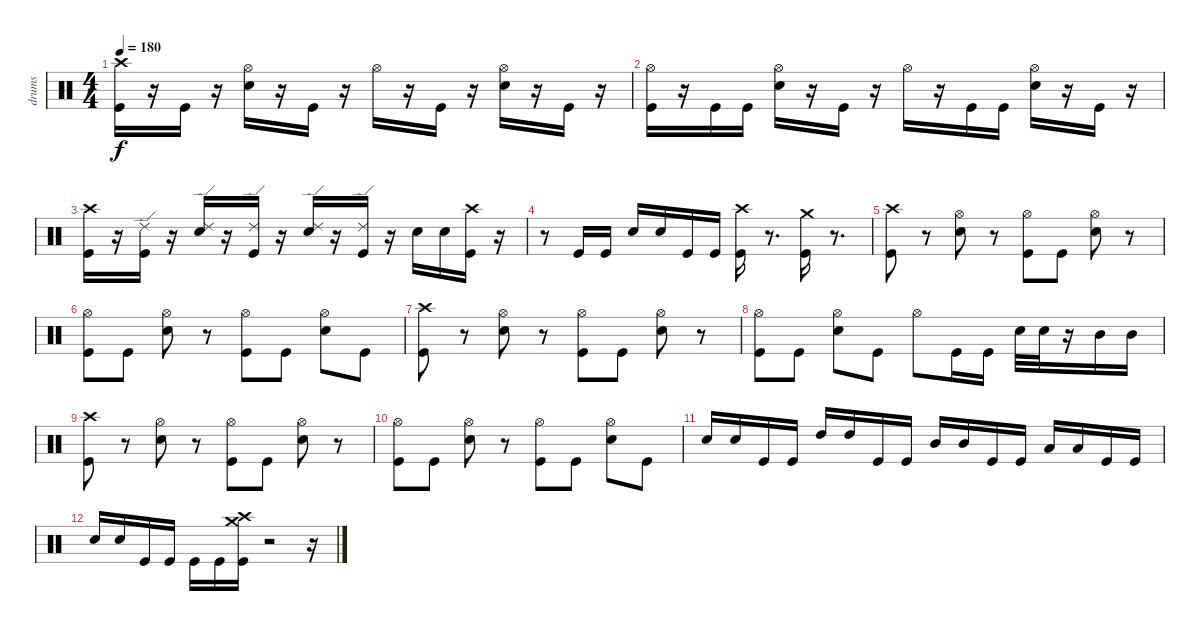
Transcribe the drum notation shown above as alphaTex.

\track ("drums" "drums") {instrument percussion}
\staff {score}
\articulation defaults
\ts (4 4)
\tempo 180
\clef neutral
\ks c
("Crash high (hit)" "Kick (hit)").16{dy f} r.16 "Kick (hit)".16 r.16 ("Hi-Hat (open)" "Snare (hit) 2").16 r.16 "Kick (hit)".16 r.16 "Hi-Hat (open)".16 r.16 "Kick (hit)".16 r.16 ("Hi-Hat (open)" "Snare (hit) 2").16 r.16 "Kick (hit)".16 r.16 |
("Hi-Hat (open)" "Kick (hit)").16 r.16 "Kick (hit)".16 "Kick (hit)".16 ("Hi-Hat (open)" "Snare (hit) 2").16 r.16 "Kick (hit)".16 r.16 "Hi-Hat (open)".16 r.16 "Kick (hit)".16 "Kick (hit)".16 ("Hi-Hat (open)" "Snare (hit) 2").16 r.16 "Kick (hit)".16 r.16 |
("Crash high (hit)" "Kick (hit)").16 r.16 ("Ride (edge) 2" "Kick (hit)").16 r.16 ("Ride (edge) 2" "Snare (hit) 2").16 r.16 ("Ride (edge) 2" "Kick (hit)").16 r.16 ("Ride (edge) 2" "Snare (hit) 2").16 r.16 ("Ride (edge) 2" "Kick (hit)").16 r.16 "Snare (hit) 2".16 "Snare (hit) 2".16 ("Crash high (hit)" "Kick (hit)").16 r.16 |
r.8 "Kick (hit)".16 "Kick (hit)".16 "Snare (hit) 2".16 "Snare (hit) 2".16 "Kick (hit)".16 "Kick (hit)".16 ("Crash high (hit)" "Kick (hit)").16 r.8{d} ("Kick (hit)" "Crash medium (hit)").16 r.8{d} |
("Crash high (hit)" "Kick (hit)").8 r.8 ("Hi-Hat (open)" "Snare (hit) 2").8 r.8 ("Hi-Hat (open)" "Kick (hit)").8 "Kick (hit)".8 ("Hi-Hat (open)" "Snare (hit) 2").8 r.8 |
("Hi-Hat (open)" "Kick (hit)").8 "Kick (hit)".8 ("Hi-Hat (open)" "Snare (hit) 2").8 r.8 ("Hi-Hat (open)" "Kick (hit)").8 "Kick (hit)".8 ("Hi-Hat (open)" "Snare (hit) 2").8 "Kick (hit)".8 |
("Crash high (hit)" "Kick (hit)").8 r.8 ("Hi-Hat (open)" "Snare (hit) 2").8 r.8 ("Hi-Hat (open)" "Kick (hit)").8 "Kick (hit)".8 ("Hi-Hat (open)" "Snare (hit) 2").8 r.8 |
("Hi-Hat (open)" "Kick (hit)").8 "Kick (hit)".8 ("Hi-Hat (open)" "Snare (hit) 2").8 "Kick (hit)".8 "Hi-Hat (open)".8 "Kick (hit)".16 "Kick (hit)".16 "Snare (hit) 2".32 "Snare (hit) 2".32 r.16 "Mid Tom (hit)".16 "Mid Tom (hit)".16 |
("Crash high (hit)" "Kick (hit)").8 r.8 ("Hi-Hat (open)" "Snare (hit) 2").8 r.8 ("Hi-Hat (open)" "Kick (hit)").8 "Kick (hit)".8 ("Hi-Hat (open)" "Snare (hit) 2").8 r.8 |
("Hi-Hat (open)" "Kick (hit)").8 "Kick (hit)".8 ("Hi-Hat (open)" "Snare (hit) 2").8 r.8 ("Hi-Hat (open)" "Kick (hit)").8 "Kick (hit)".8 ("Hi-Hat (open)" "Snare (hit) 2").8 "Kick (hit)".8 |
"Snare (hit) 2".16 "Snare (hit) 2".16 "Kick (hit)".16 "Kick (hit)".16 "High Tom (hit)".16 "High Tom (hit)".16 "Kick (hit)".16 "Kick (hit)".16 "Mid Tom (hit)".16 "Mid Tom (hit)".16 "Kick (hit)".16 "Kick (hit)".16 "Low Tom (hit)".16 "Low Tom (hit)".16 "Kick (hit)".16 "Kick (hit)".16 |
"Snare (hit) 2".16 "Snare (hit) 2".16 "Kick (hit)".16 "Kick (hit)".16 "Kick (hit)".16 "Kick (hit)".16 ("Crash medium (hit)" "Kick (hit)" "Crash high (hit)").16 r.2 r.16
